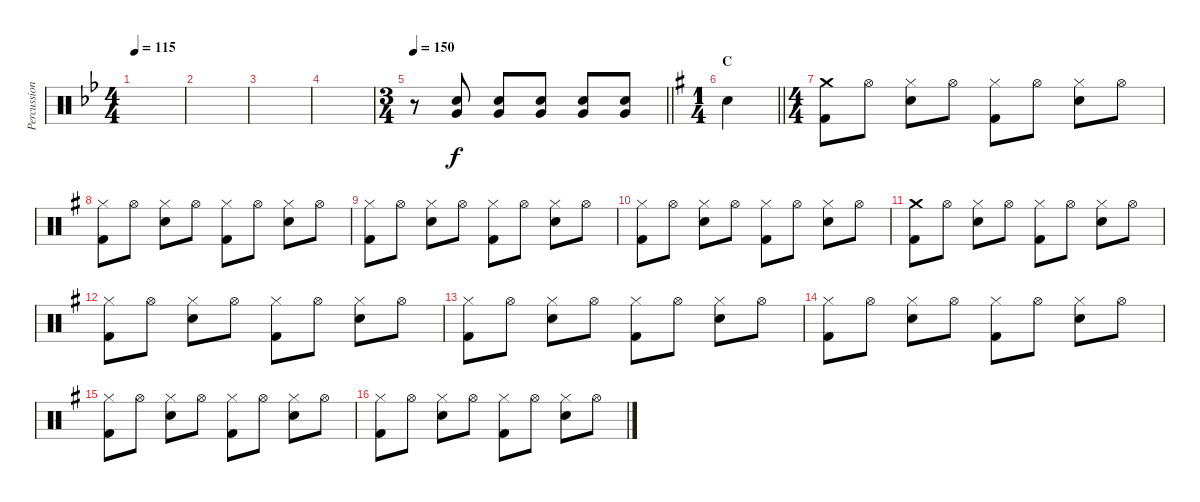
\track ("Percussion" "Percussion") {instrument percussion}
\staff {score}
\articulation defaults
\ts (4 4)
\tempo 115
\clef neutral
\ks bb
|
|
|
|
\ts (3 4)
\tempo 150
\barLineRight lightlight
r.8 ("Very Low Tom (hit)" "Snare (hit) 2").8 ("Very Low Tom (hit)" "Snare (hit) 2").8 ("Very Low Tom (hit)" "Snare (hit) 2").8 ("Very Low Tom (hit)" "Snare (hit) 2").8 ("Very Low Tom (hit)" "Snare (hit) 2").8 |
\ts (1 4)
\section ("" "C")
\barLineRight lightlight
\ks g "Snare (hit) 2".4
|
\ts (4 4)
("Crash medium (hit)" "Kick (hit) 2").8 "Hi-Hat (open)".8 ("Hi-Hat (closed)" "Snare (hit) 2").8 "Hi-Hat (open)".8 ("Hi-Hat (closed)" "Kick (hit) 2").8 "Hi-Hat (open)".8 ("Hi-Hat (closed)" "Snare (hit) 2").8 "Hi-Hat (open)".8 |
("Hi-Hat (closed)" "Kick (hit) 2").8 "Hi-Hat (open)".8 ("Hi-Hat (closed)" "Snare (hit) 2").8 "Hi-Hat (open)".8 ("Hi-Hat (closed)" "Kick (hit) 2").8 "Hi-Hat (open)".8 ("Hi-Hat (closed)" "Snare (hit) 2").8 "Hi-Hat (open)".8 |
("Hi-Hat (closed)" "Kick (hit) 2").8 "Hi-Hat (open)".8 ("Hi-Hat (closed)" "Snare (hit) 2").8 "Hi-Hat (open)".8 ("Hi-Hat (closed)" "Kick (hit) 2").8 "Hi-Hat (open)".8 ("Hi-Hat (closed)" "Snare (hit) 2").8 "Hi-Hat (open)".8 |
("Hi-Hat (closed)" "Kick (hit) 2").8 "Hi-Hat (open)".8 ("Hi-Hat (closed)" "Snare (hit) 2").8 "Hi-Hat (open)".8 ("Hi-Hat (closed)" "Kick (hit) 2").8 "Hi-Hat (open)".8 ("Hi-Hat (closed)" "Snare (hit) 2").8 "Hi-Hat (open)".8 |
("Crash medium (hit)" "Kick (hit) 2").8 "Hi-Hat (open)".8 ("Hi-Hat (closed)" "Snare (hit) 2").8 "Hi-Hat (open)".8 ("Hi-Hat (closed)" "Kick (hit) 2").8 "Hi-Hat (open)".8 ("Hi-Hat (closed)" "Snare (hit) 2").8 "Hi-Hat (open)".8 |
("Hi-Hat (closed)" "Kick (hit) 2").8 "Hi-Hat (open)".8 ("Hi-Hat (closed)" "Snare (hit) 2").8 "Hi-Hat (open)".8 ("Hi-Hat (closed)" "Kick (hit) 2").8 "Hi-Hat (open)".8 ("Hi-Hat (closed)" "Snare (hit) 2").8 "Hi-Hat (open)".8 |
("Hi-Hat (closed)" "Kick (hit) 2").8 "Hi-Hat (open)".8 ("Hi-Hat (closed)" "Snare (hit) 2").8 "Hi-Hat (open)".8 ("Hi-Hat (closed)" "Kick (hit) 2").8 "Hi-Hat (open)".8 ("Hi-Hat (closed)" "Snare (hit) 2").8 "Hi-Hat (open)".8 |
("Hi-Hat (closed)" "Kick (hit) 2").8 "Hi-Hat (open)".8 ("Hi-Hat (closed)" "Snare (hit) 2").8 "Hi-Hat (open)".8 ("Hi-Hat (closed)" "Kick (hit) 2").8 "Hi-Hat (open)".8 ("Hi-Hat (closed)" "Snare (hit) 2").8 "Hi-Hat (open)".8 |
("Hi-Hat (closed)" "Kick (hit) 2").8 "Hi-Hat (open)".8 ("Hi-Hat (closed)" "Snare (hit) 2").8 "Hi-Hat (open)".8 ("Hi-Hat (closed)" "Kick (hit) 2").8 "Hi-Hat (open)".8 ("Hi-Hat (closed)" "Snare (hit) 2").8 "Hi-Hat (open)".8 |
("Hi-Hat (closed)" "Kick (hit) 2").8 "Hi-Hat (open)".8 ("Hi-Hat (closed)" "Snare (hit) 2").8 "Hi-Hat (open)".8 ("Hi-Hat (closed)" "Kick (hit) 2").8 "Hi-Hat (open)".8 ("Hi-Hat (closed)" "Snare (hit) 2").8 "Hi-Hat (open)".8
